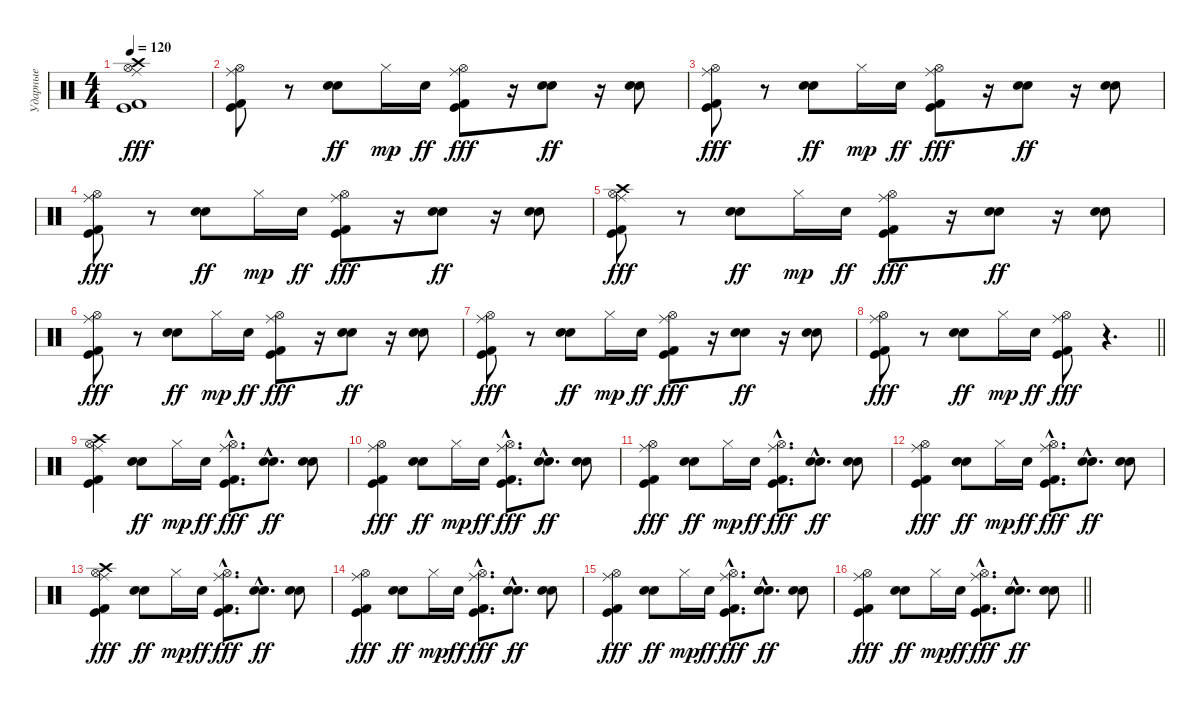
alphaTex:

\track ("Ударные" "Ударные") {instrument percussion}
\staff {score}
\articulation defaults
\ts (4 4)
\tempo 120
\clef neutral
\ks c
("Hi-Hat (open)" "Ride (middle)" "Crash high (hit)" "Kick (hit) 2" "Kick (hit)").1{dy fff} |
("Hi-Hat (open)" "Ride (middle)" "Kick (hit) 2" "Kick (hit)").8 r.8 ("Hand Clap (hit)" "Snare (hit) 2").8{dy ff} "Hi-Hat (closed)".16{dy mp} "Snare (hit) 2".16{dy ff} ("Hi-Hat (open)" "Ride (middle)" "Kick (hit) 2" "Kick (hit)").8{dy fff} r.16 ("Hand Clap (hit)" "Snare (hit) 2").8{dy ff} r.16 ("Hand Clap (hit)" "Snare (hit) 2").8 |
("Hi-Hat (open)" "Ride (middle)" "Kick (hit) 2" "Kick (hit)").8{dy fff} r.8 ("Hand Clap (hit)" "Snare (hit) 2").8{dy ff} "Hi-Hat (closed)".16{dy mp} "Snare (hit) 2".16{dy ff} ("Hi-Hat (open)" "Ride (middle)" "Kick (hit) 2" "Kick (hit)").8{dy fff} r.16 ("Hand Clap (hit)" "Snare (hit) 2").8{dy ff} r.16 ("Hand Clap (hit)" "Snare (hit) 2").8 |
("Hi-Hat (open)" "Ride (middle)" "Kick (hit) 2" "Kick (hit)").8{dy fff} r.8 ("Hand Clap (hit)" "Snare (hit) 2").8{dy ff} "Hi-Hat (closed)".16{dy mp} "Snare (hit) 2".16{dy ff} ("Hi-Hat (open)" "Ride (middle)" "Kick (hit) 2" "Kick (hit)").8{dy fff} r.16 ("Hand Clap (hit)" "Snare (hit) 2").8{dy ff} r.16 ("Hand Clap (hit)" "Snare (hit) 2").8 |
("Hi-Hat (open)" "Ride (middle)" "Crash high (hit)" "Kick (hit) 2" "Kick (hit)").8{dy fff} r.8 ("Hand Clap (hit)" "Snare (hit) 2").8{dy ff} "Hi-Hat (closed)".16{dy mp} "Snare (hit) 2".16{dy ff} ("Hi-Hat (open)" "Ride (middle)" "Kick (hit) 2" "Kick (hit)").8{dy fff} r.16 ("Hand Clap (hit)" "Snare (hit) 2").8{dy ff} r.16 ("Hand Clap (hit)" "Snare (hit) 2").8 |
("Hi-Hat (open)" "Ride (middle)" "Kick (hit) 2" "Kick (hit)").8{dy fff} r.8 ("Hand Clap (hit)" "Snare (hit) 2").8{dy ff} "Hi-Hat (closed)".16{dy mp} "Snare (hit) 2".16{dy ff} ("Hi-Hat (open)" "Ride (middle)" "Kick (hit) 2" "Kick (hit)").8{dy fff} r.16 ("Hand Clap (hit)" "Snare (hit) 2").8{dy ff} r.16 ("Hand Clap (hit)" "Snare (hit) 2").8 |
("Hi-Hat (open)" "Ride (middle)" "Kick (hit) 2" "Kick (hit)").8{dy fff} r.8 ("Hand Clap (hit)" "Snare (hit) 2").8{dy ff} "Hi-Hat (closed)".16{dy mp} "Snare (hit) 2".16{dy ff} ("Hi-Hat (open)" "Ride (middle)" "Kick (hit) 2" "Kick (hit)").8{dy fff} r.16 ("Hand Clap (hit)" "Snare (hit) 2").8{dy ff} r.16 ("Hand Clap (hit)" "Snare (hit) 2").8 |
\barLineRight lightlight
("Hi-Hat (open)" "Ride (middle)" "Kick (hit) 2" "Kick (hit)").8{dy fff} r.8 ("Hand Clap (hit)" "Snare (hit) 2").8{dy ff} "Hi-Hat (closed)".16{dy mp} "Snare (hit) 2".16{dy ff} ("Hi-Hat (open)" "Ride (middle)" "Kick (hit) 2" "Kick (hit)").8{dy fff} r.4{d} |
("Hi-Hat (open)" "Ride (middle)" "Crash high (hit)" "Kick (hit) 2" "Kick (hit)").4 ("Hand Clap (hit)" "Snare (hit) 2").8{dy ff} "Hi-Hat (closed)".16{dy mp} "Snare (hit) 2".16{dy ff} ("Hi-Hat (open)"{hac} "Ride (middle)"{hac} "Kick (hit) 2"{hac} "Kick (hit)"{hac}).8{d dy fff} ("Hand Clap (hit)"{hac} "Snare (hit) 2"{hac}).8{d dy ff} ("Hand Clap (hit)" "Snare (hit) 2").8 |
("Hi-Hat (open)" "Ride (middle)" "Kick (hit) 2" "Kick (hit)").4{dy fff} ("Hand Clap (hit)" "Snare (hit) 2").8{dy ff} "Hi-Hat (closed)".16{dy mp} "Snare (hit) 2".16{dy ff} ("Hi-Hat (open)"{hac} "Ride (middle)"{hac} "Kick (hit) 2"{hac} "Kick (hit)"{hac}).8{d dy fff} ("Hand Clap (hit)"{hac} "Snare (hit) 2"{hac}).8{d dy ff} ("Hand Clap (hit)" "Snare (hit) 2").8 |
("Hi-Hat (open)" "Ride (middle)" "Kick (hit) 2" "Kick (hit)").4{dy fff} ("Hand Clap (hit)" "Snare (hit) 2").8{dy ff} "Hi-Hat (closed)".16{dy mp} "Snare (hit) 2".16{dy ff} ("Hi-Hat (open)"{hac} "Ride (middle)"{hac} "Kick (hit) 2"{hac} "Kick (hit)"{hac}).8{d dy fff} ("Hand Clap (hit)"{hac} "Snare (hit) 2"{hac}).8{d dy ff} ("Hand Clap (hit)" "Snare (hit) 2").8 |
("Hi-Hat (open)" "Ride (middle)" "Kick (hit) 2" "Kick (hit)").4{dy fff} ("Hand Clap (hit)" "Snare (hit) 2").8{dy ff} "Hi-Hat (closed)".16{dy mp} "Snare (hit) 2".16{dy ff} ("Hi-Hat (open)"{hac} "Ride (middle)"{hac} "Kick (hit) 2"{hac} "Kick (hit)"{hac}).8{d dy fff} ("Hand Clap (hit)"{hac} "Snare (hit) 2"{hac}).8{d dy ff} ("Hand Clap (hit)" "Snare (hit) 2").8 |
("Hi-Hat (open)" "Ride (middle)" "Crash high (hit)" "Kick (hit) 2" "Kick (hit)").4{dy fff} ("Hand Clap (hit)" "Snare (hit) 2").8{dy ff} "Hi-Hat (closed)".16{dy mp} "Snare (hit) 2".16{dy ff} ("Hi-Hat (open)"{hac} "Ride (middle)"{hac} "Kick (hit) 2"{hac} "Kick (hit)"{hac}).8{d dy fff} ("Hand Clap (hit)"{hac} "Snare (hit) 2"{hac}).8{d dy ff} ("Hand Clap (hit)" "Snare (hit) 2").8 |
("Hi-Hat (open)" "Ride (middle)" "Kick (hit) 2" "Kick (hit)").4{dy fff} ("Hand Clap (hit)" "Snare (hit) 2").8{dy ff} "Hi-Hat (closed)".16{dy mp} "Snare (hit) 2".16{dy ff} ("Hi-Hat (open)"{hac} "Ride (middle)"{hac} "Kick (hit) 2"{hac} "Kick (hit)"{hac}).8{d dy fff} ("Hand Clap (hit)"{hac} "Snare (hit) 2"{hac}).8{d dy ff} ("Hand Clap (hit)" "Snare (hit) 2").8 |
("Hi-Hat (open)" "Ride (middle)" "Kick (hit) 2" "Kick (hit)").4{dy fff} ("Hand Clap (hit)" "Snare (hit) 2").8{dy ff} "Hi-Hat (closed)".16{dy mp} "Snare (hit) 2".16{dy ff} ("Hi-Hat (open)"{hac} "Ride (middle)"{hac} "Kick (hit) 2"{hac} "Kick (hit)"{hac}).8{d dy fff} ("Hand Clap (hit)"{hac} "Snare (hit) 2"{hac}).8{d dy ff} ("Hand Clap (hit)" "Snare (hit) 2").8 |
\barLineRight lightlight
("Hi-Hat (open)" "Ride (middle)" "Kick (hit) 2" "Kick (hit)").4{dy fff} ("Hand Clap (hit)" "Snare (hit) 2").8{dy ff} "Hi-Hat (closed)".16{dy mp} "Snare (hit) 2".16{dy ff} ("Hi-Hat (open)"{hac} "Ride (middle)"{hac} "Kick (hit) 2"{hac} "Kick (hit)"{hac}).8{d dy fff} ("Hand Clap (hit)"{hac} "Snare (hit) 2"{hac}).8{d dy ff} ("Hand Clap (hit)" "Snare (hit) 2").8
